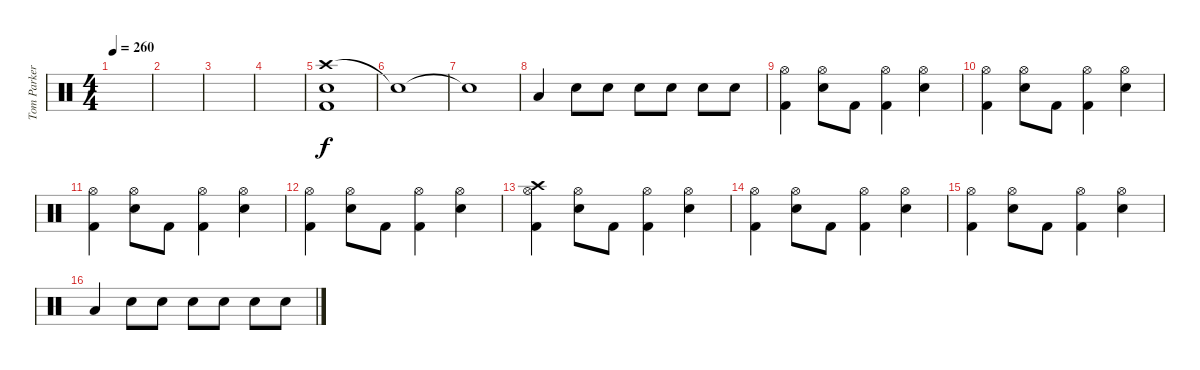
\track ("Tom Parker" "Tom Parker") {instrument percussion}
\staff {score}
\articulation defaults
\ts (4 4)
\tempo 260
\clef neutral
\ks c
|
|
|
|
("Crash high (hit)" "Electric Snare (hit)" "Kick (hit) 2").1 |
"Snare (hit)"{t}.1 |
"Snare (hit)"{t}.1 |
"Low Tom (hit)".4 "Electric Snare (hit)".8 "Electric Snare (hit)".8 "Electric Snare (hit)".8 "Electric Snare (hit)".8 "Electric Snare (hit)".8 "Electric Snare (hit)".8 |
("Hi-Hat (open)" "Kick (hit) 2").4 ("Hi-Hat (open)" "Electric Snare (hit)").8 "Kick (hit) 2".8 ("Hi-Hat (open)" "Kick (hit) 2").4 ("Hi-Hat (open)" "Electric Snare (hit)").4 |
("Hi-Hat (open)" "Kick (hit) 2").4 ("Hi-Hat (open)" "Electric Snare (hit)").8 "Kick (hit) 2".8 ("Hi-Hat (open)" "Kick (hit) 2").4 ("Hi-Hat (open)" "Electric Snare (hit)").4 |
("Hi-Hat (open)" "Kick (hit) 2").4 ("Hi-Hat (open)" "Electric Snare (hit)").8 "Kick (hit) 2".8 ("Hi-Hat (open)" "Kick (hit) 2").4 ("Hi-Hat (open)" "Electric Snare (hit)").4 |
("Hi-Hat (open)" "Kick (hit) 2").4 ("Hi-Hat (open)" "Electric Snare (hit)").8 "Kick (hit) 2".8 ("Hi-Hat (open)" "Kick (hit) 2").4 ("Hi-Hat (open)" "Electric Snare (hit)").4 |
("Crash high (hit)" "Hi-Hat (open)" "Kick (hit) 2").4 ("Hi-Hat (open)" "Electric Snare (hit)").8 "Kick (hit) 2".8 ("Hi-Hat (open)" "Kick (hit) 2").4 ("Hi-Hat (open)" "Electric Snare (hit)").4 |
("Hi-Hat (open)" "Kick (hit) 2").4 ("Hi-Hat (open)" "Electric Snare (hit)").8 "Kick (hit) 2".8 ("Hi-Hat (open)" "Kick (hit) 2").4 ("Hi-Hat (open)" "Electric Snare (hit)").4 |
("Hi-Hat (open)" "Kick (hit) 2").4 ("Hi-Hat (open)" "Electric Snare (hit)").8 "Kick (hit) 2".8 ("Hi-Hat (open)" "Kick (hit) 2").4 ("Hi-Hat (open)" "Electric Snare (hit)").4 |
"Low Tom (hit)".4 "Electric Snare (hit)".8 "Electric Snare (hit)".8 "Electric Snare (hit)".8 "Electric Snare (hit)".8 "Electric Snare (hit)".8 "Electric Snare (hit)".8
